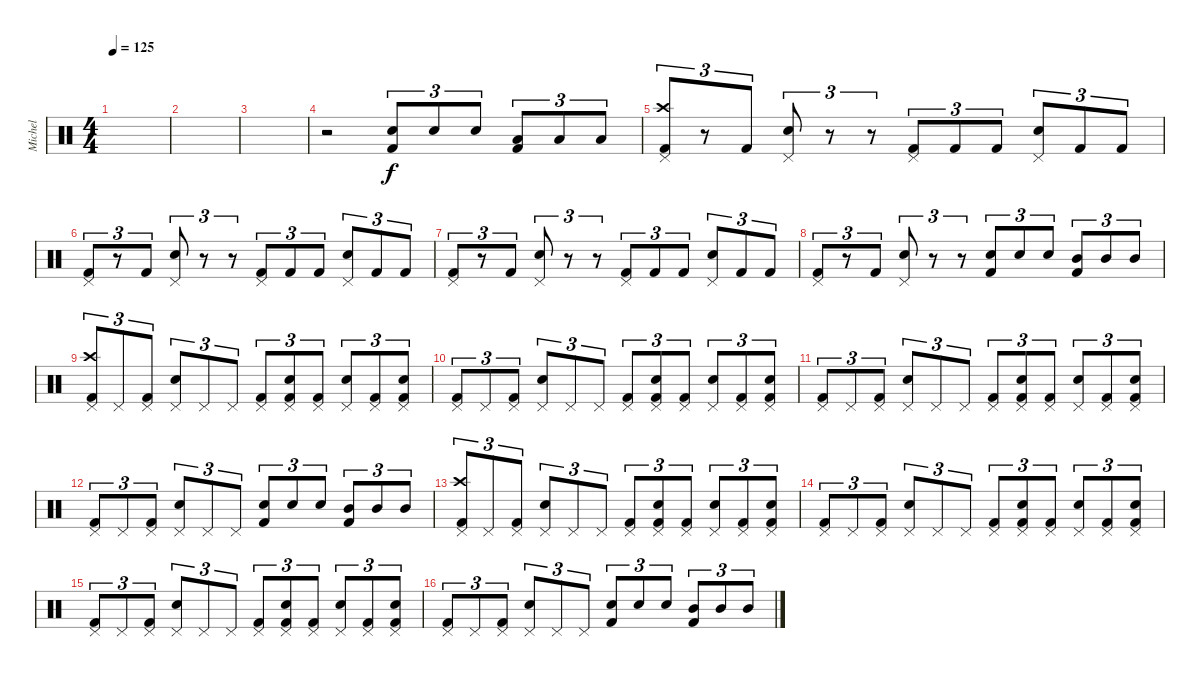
\track ("Michel" "Michel") {instrument percussion}
\staff {score}
\articulation defaults
\ts (4 4)
\tempo 125
\clef neutral
\ks c
|
|
|
r.2 ("Snare (hit) 2" "Kick (hit) 2").8{tu (3 2)} "Snare (hit) 2".8{tu (3 2)} "Snare (hit) 2".8{tu (3 2)} ("Low Tom (hit)" "Kick (hit) 2").8{tu (3 2)} "Low Tom (hit)".8{tu (3 2)} "Low Tom (hit)".8{tu (3 2)} |
("Crash high (hit)" "Kick (hit) 2" "Pedal Hi-Hat (hit)").8{tu (3 2)} r.8{tu (3 2)} "Kick (hit) 2".8{tu (3 2)} ("Snare (hit) 2" "Pedal Hi-Hat (hit)").8{tu (3 2)} r.8{tu (3 2)} r.8{tu (3 2)} ("Kick (hit) 2" "Pedal Hi-Hat (hit)").8{tu (3 2)} "Kick (hit) 2".8{tu (3 2)} "Kick (hit) 2".8{tu (3 2)} ("Snare (hit) 2" "Pedal Hi-Hat (hit)").8{tu (3 2)} "Kick (hit) 2".8{tu (3 2)} "Kick (hit) 2".8{tu (3 2)} |
("Kick (hit) 2" "Pedal Hi-Hat (hit)").8{tu (3 2)} r.8{tu (3 2)} "Kick (hit) 2".8{tu (3 2)} ("Snare (hit) 2" "Pedal Hi-Hat (hit)").8{tu (3 2)} r.8{tu (3 2)} r.8{tu (3 2)} ("Kick (hit) 2" "Pedal Hi-Hat (hit)").8{tu (3 2)} "Kick (hit) 2".8{tu (3 2)} "Kick (hit) 2".8{tu (3 2)} ("Snare (hit) 2" "Pedal Hi-Hat (hit)").8{tu (3 2)} "Kick (hit) 2".8{tu (3 2)} "Kick (hit) 2".8{tu (3 2)} |
("Kick (hit) 2" "Pedal Hi-Hat (hit)").8{tu (3 2)} r.8{tu (3 2)} "Kick (hit) 2".8{tu (3 2)} ("Snare (hit) 2" "Pedal Hi-Hat (hit)").8{tu (3 2)} r.8{tu (3 2)} r.8{tu (3 2)} ("Kick (hit) 2" "Pedal Hi-Hat (hit)").8{tu (3 2)} "Kick (hit) 2".8{tu (3 2)} "Kick (hit) 2".8{tu (3 2)} ("Snare (hit) 2" "Pedal Hi-Hat (hit)").8{tu (3 2)} "Kick (hit) 2".8{tu (3 2)} "Kick (hit) 2".8{tu (3 2)} |
("Kick (hit) 2" "Pedal Hi-Hat (hit)").8{tu (3 2)} r.8{tu (3 2)} "Kick (hit) 2".8{tu (3 2)} ("Snare (hit) 2" "Pedal Hi-Hat (hit)").8{tu (3 2)} r.8{tu (3 2)} r.8{tu (3 2)} ("Snare (hit) 2" "Kick (hit) 2").8{tu (3 2)} "Snare (hit) 2".8{tu (3 2)} "Snare (hit) 2".8{tu (3 2)} ("Mid Tom (hit)" "Kick (hit) 2").8{tu (3 2)} "Mid Tom (hit)".8{tu (3 2)} "Mid Tom (hit)".8{tu (3 2)} |
("Crash high (hit)" "Kick (hit) 2" "Pedal Hi-Hat (hit)").8{tu (3 2)} "Pedal Hi-Hat (hit)".8{tu (3 2)} ("Kick (hit) 2" "Pedal Hi-Hat (hit)").8{tu (3 2)} ("Snare (hit) 2" "Pedal Hi-Hat (hit)").8{tu (3 2)} "Pedal Hi-Hat (hit)".8{tu (3 2)} "Pedal Hi-Hat (hit)".8{tu (3 2)} ("Kick (hit) 2" "Pedal Hi-Hat (hit)").8{tu (3 2)} ("Snare (hit) 2" "Kick (hit) 2" "Pedal Hi-Hat (hit)").8{tu (3 2)} ("Kick (hit) 2" "Pedal Hi-Hat (hit)").8{tu (3 2)} ("Snare (hit) 2" "Pedal Hi-Hat (hit)").8{tu (3 2)} ("Kick (hit) 2" "Pedal Hi-Hat (hit)").8{tu (3 2)} ("Snare (hit) 2" "Kick (hit) 2" "Pedal Hi-Hat (hit)").8{tu (3 2)} |
("Kick (hit) 2" "Pedal Hi-Hat (hit)").8{tu (3 2)} "Pedal Hi-Hat (hit)".8{tu (3 2)} ("Kick (hit) 2" "Pedal Hi-Hat (hit)").8{tu (3 2)} ("Snare (hit) 2" "Pedal Hi-Hat (hit)").8{tu (3 2)} "Pedal Hi-Hat (hit)".8{tu (3 2)} "Pedal Hi-Hat (hit)".8{tu (3 2)} ("Kick (hit) 2" "Pedal Hi-Hat (hit)").8{tu (3 2)} ("Snare (hit) 2" "Kick (hit) 2" "Pedal Hi-Hat (hit)").8{tu (3 2)} ("Kick (hit) 2" "Pedal Hi-Hat (hit)").8{tu (3 2)} ("Snare (hit) 2" "Pedal Hi-Hat (hit)").8{tu (3 2)} ("Kick (hit) 2" "Pedal Hi-Hat (hit)").8{tu (3 2)} ("Snare (hit) 2" "Kick (hit) 2" "Pedal Hi-Hat (hit)").8{tu (3 2)} |
("Kick (hit) 2" "Pedal Hi-Hat (hit)").8{tu (3 2)} "Pedal Hi-Hat (hit)".8{tu (3 2)} ("Kick (hit) 2" "Pedal Hi-Hat (hit)").8{tu (3 2)} ("Snare (hit) 2" "Pedal Hi-Hat (hit)").8{tu (3 2)} "Pedal Hi-Hat (hit)".8{tu (3 2)} "Pedal Hi-Hat (hit)".8{tu (3 2)} ("Kick (hit) 2" "Pedal Hi-Hat (hit)").8{tu (3 2)} ("Snare (hit) 2" "Kick (hit) 2" "Pedal Hi-Hat (hit)").8{tu (3 2)} ("Kick (hit) 2" "Pedal Hi-Hat (hit)").8{tu (3 2)} ("Snare (hit) 2" "Pedal Hi-Hat (hit)").8{tu (3 2)} ("Kick (hit) 2" "Pedal Hi-Hat (hit)").8{tu (3 2)} ("Snare (hit) 2" "Kick (hit) 2" "Pedal Hi-Hat (hit)").8{tu (3 2)} |
("Kick (hit) 2" "Pedal Hi-Hat (hit)").8{tu (3 2)} "Pedal Hi-Hat (hit)".8{tu (3 2)} ("Kick (hit) 2" "Pedal Hi-Hat (hit)").8{tu (3 2)} ("Snare (hit) 2" "Pedal Hi-Hat (hit)").8{tu (3 2)} "Pedal Hi-Hat (hit)".8{tu (3 2)} "Pedal Hi-Hat (hit)".8{tu (3 2)} ("Snare (hit) 2" "Kick (hit) 2").8{tu (3 2)} "Snare (hit) 2".8{tu (3 2)} "Snare (hit) 2".8{tu (3 2)} ("Mid Tom (hit)" "Kick (hit) 2").8{tu (3 2)} "Mid Tom (hit)".8{tu (3 2)} "Mid Tom (hit)".8{tu (3 2)} |
("Crash high (hit)" "Kick (hit) 2" "Pedal Hi-Hat (hit)").8{tu (3 2)} "Pedal Hi-Hat (hit)".8{tu (3 2)} ("Kick (hit) 2" "Pedal Hi-Hat (hit)").8{tu (3 2)} ("Snare (hit) 2" "Pedal Hi-Hat (hit)").8{tu (3 2)} "Pedal Hi-Hat (hit)".8{tu (3 2)} "Pedal Hi-Hat (hit)".8{tu (3 2)} ("Kick (hit) 2" "Pedal Hi-Hat (hit)").8{tu (3 2)} ("Snare (hit) 2" "Kick (hit) 2" "Pedal Hi-Hat (hit)").8{tu (3 2)} ("Kick (hit) 2" "Pedal Hi-Hat (hit)").8{tu (3 2)} ("Snare (hit) 2" "Pedal Hi-Hat (hit)").8{tu (3 2)} ("Kick (hit) 2" "Pedal Hi-Hat (hit)").8{tu (3 2)} ("Snare (hit) 2" "Kick (hit) 2" "Pedal Hi-Hat (hit)").8{tu (3 2)} |
("Kick (hit) 2" "Pedal Hi-Hat (hit)").8{tu (3 2)} "Pedal Hi-Hat (hit)".8{tu (3 2)} ("Kick (hit) 2" "Pedal Hi-Hat (hit)").8{tu (3 2)} ("Snare (hit) 2" "Pedal Hi-Hat (hit)").8{tu (3 2)} "Pedal Hi-Hat (hit)".8{tu (3 2)} "Pedal Hi-Hat (hit)".8{tu (3 2)} ("Kick (hit) 2" "Pedal Hi-Hat (hit)").8{tu (3 2)} ("Snare (hit) 2" "Kick (hit) 2" "Pedal Hi-Hat (hit)").8{tu (3 2)} ("Kick (hit) 2" "Pedal Hi-Hat (hit)").8{tu (3 2)} ("Snare (hit) 2" "Pedal Hi-Hat (hit)").8{tu (3 2)} ("Kick (hit) 2" "Pedal Hi-Hat (hit)").8{tu (3 2)} ("Snare (hit) 2" "Kick (hit) 2" "Pedal Hi-Hat (hit)").8{tu (3 2)} |
("Kick (hit) 2" "Pedal Hi-Hat (hit)").8{tu (3 2)} "Pedal Hi-Hat (hit)".8{tu (3 2)} ("Kick (hit) 2" "Pedal Hi-Hat (hit)").8{tu (3 2)} ("Snare (hit) 2" "Pedal Hi-Hat (hit)").8{tu (3 2)} "Pedal Hi-Hat (hit)".8{tu (3 2)} "Pedal Hi-Hat (hit)".8{tu (3 2)} ("Kick (hit) 2" "Pedal Hi-Hat (hit)").8{tu (3 2)} ("Snare (hit) 2" "Kick (hit) 2" "Pedal Hi-Hat (hit)").8{tu (3 2)} ("Kick (hit) 2" "Pedal Hi-Hat (hit)").8{tu (3 2)} ("Snare (hit) 2" "Pedal Hi-Hat (hit)").8{tu (3 2)} ("Kick (hit) 2" "Pedal Hi-Hat (hit)").8{tu (3 2)} ("Snare (hit) 2" "Kick (hit) 2" "Pedal Hi-Hat (hit)").8{tu (3 2)} |
("Kick (hit) 2" "Pedal Hi-Hat (hit)").8{tu (3 2)} "Pedal Hi-Hat (hit)".8{tu (3 2)} ("Kick (hit) 2" "Pedal Hi-Hat (hit)").8{tu (3 2)} ("Snare (hit) 2" "Pedal Hi-Hat (hit)").8{tu (3 2)} "Pedal Hi-Hat (hit)".8{tu (3 2)} "Pedal Hi-Hat (hit)".8{tu (3 2)} ("Snare (hit) 2" "Kick (hit) 2").8{tu (3 2)} "Snare (hit) 2".8{tu (3 2)} "Snare (hit) 2".8{tu (3 2)} ("Mid Tom (hit)" "Kick (hit) 2").8{tu (3 2)} "Mid Tom (hit)".8{tu (3 2)} "Mid Tom (hit)".8{tu (3 2)}
